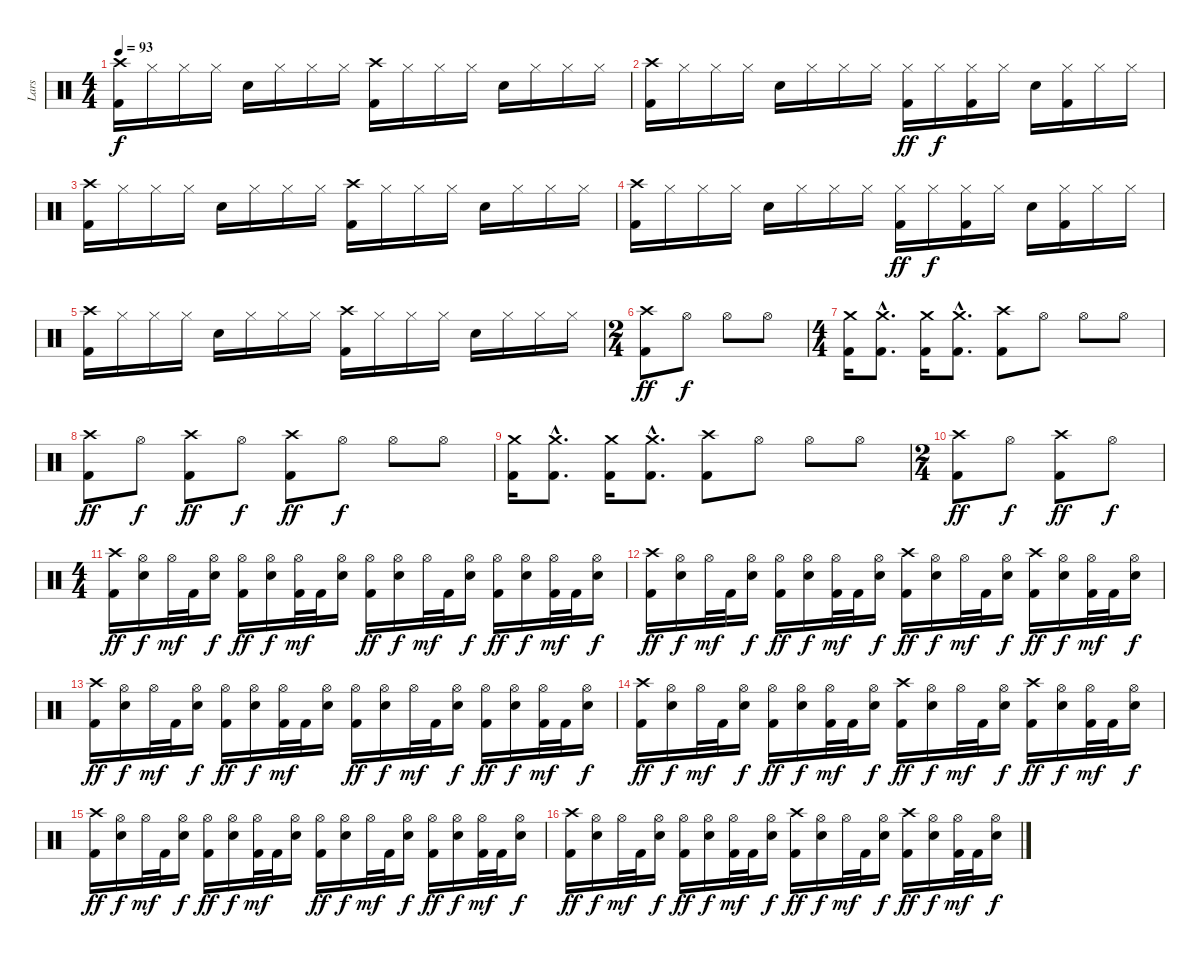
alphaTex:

\track ("Lars" "Lars") {instrument percussion}
\staff {score}
\articulation defaults
\ts (4 4)
\tempo 93
\clef neutral
\ks c
("Crash high (hit)" "Kick (hit) 2").16{dy f} "Hi-Hat (closed)".16 "Hi-Hat (closed)".16 "Hi-Hat (closed)".16 "Snare (hit) 2".16 "Hi-Hat (closed)".16 "Hi-Hat (closed)".16 "Hi-Hat (closed)".16 ("Crash high (hit)" "Kick (hit) 2").16 "Hi-Hat (closed)".16 "Hi-Hat (closed)".16 "Hi-Hat (closed)".16 "Snare (hit) 2".16 "Hi-Hat (closed)".16 "Hi-Hat (closed)".16 "Hi-Hat (closed)".16 |
("Crash high (hit)" "Kick (hit) 2").16 "Hi-Hat (closed)".16 "Hi-Hat (closed)".16 "Hi-Hat (closed)".16 "Snare (hit) 2".16 "Hi-Hat (closed)".16 "Hi-Hat (closed)".16 "Hi-Hat (closed)".16 ("Hi-Hat (closed)" "Kick (hit) 2").16{dy ff} "Hi-Hat (closed)".16{dy f} ("Hi-Hat (closed)" "Kick (hit) 2").16 "Hi-Hat (closed)".16 "Snare (hit) 2".16 ("Hi-Hat (closed)" "Kick (hit) 2").16 "Hi-Hat (closed)".16 "Hi-Hat (closed)".16 |
("Crash high (hit)" "Kick (hit) 2").16 "Hi-Hat (closed)".16 "Hi-Hat (closed)".16 "Hi-Hat (closed)".16 "Snare (hit) 2".16 "Hi-Hat (closed)".16 "Hi-Hat (closed)".16 "Hi-Hat (closed)".16 ("Crash high (hit)" "Kick (hit) 2").16 "Hi-Hat (closed)".16 "Hi-Hat (closed)".16 "Hi-Hat (closed)".16 "Snare (hit) 2".16 "Hi-Hat (closed)".16 "Hi-Hat (closed)".16 "Hi-Hat (closed)".16 |
("Crash high (hit)" "Kick (hit) 2").16 "Hi-Hat (closed)".16 "Hi-Hat (closed)".16 "Hi-Hat (closed)".16 "Snare (hit) 2".16 "Hi-Hat (closed)".16 "Hi-Hat (closed)".16 "Hi-Hat (closed)".16 ("Hi-Hat (closed)" "Kick (hit) 2").16{dy ff} "Hi-Hat (closed)".16{dy f} ("Hi-Hat (closed)" "Kick (hit) 2").16 "Hi-Hat (closed)".16 "Snare (hit) 2".16 ("Hi-Hat (closed)" "Kick (hit) 2").16 "Hi-Hat (closed)".16 "Hi-Hat (closed)".16 |
("Crash high (hit)" "Kick (hit) 2").16 "Hi-Hat (closed)".16 "Hi-Hat (closed)".16 "Hi-Hat (closed)".16 "Snare (hit) 2".16 "Hi-Hat (closed)".16 "Hi-Hat (closed)".16 "Hi-Hat (closed)".16 ("Crash high (hit)" "Kick (hit) 2").16 "Hi-Hat (closed)".16 "Hi-Hat (closed)".16 "Hi-Hat (closed)".16 "Snare (hit) 2".16 "Hi-Hat (closed)".16 "Hi-Hat (closed)".16 "Hi-Hat (closed)".16 |
\ts (2 4)
("Crash high (hit)" "Kick (hit) 2").8{dy ff} "Hi-Hat (open)".8{dy f} "Hi-Hat (open)".8 "Hi-Hat (open)".8 |
\ts (4 4)
("Crash medium (hit)" "Kick (hit) 2").16 ("Crash medium (hit)"{hac} "Kick (hit) 2"{hac}).8{d} ("Crash medium (hit)" "Kick (hit) 2").16 ("Crash medium (hit)"{hac} "Kick (hit) 2"{hac}).8{d} ("Crash high (hit)" "Kick (hit) 2").8 "Hi-Hat (open)".8 "Hi-Hat (open)".8 "Hi-Hat (open)".8 |
("Crash high (hit)" "Kick (hit) 2").8{dy ff} "Hi-Hat (open)".8{dy f} ("Crash high (hit)" "Kick (hit) 2").8{dy ff} "Hi-Hat (open)".8{dy f} ("Crash high (hit)" "Kick (hit) 2").8{dy ff} "Hi-Hat (open)".8{dy f} "Hi-Hat (open)".8 "Hi-Hat (open)".8 |
("Crash medium (hit)" "Kick (hit) 2").16 ("Crash medium (hit)"{hac} "Kick (hit) 2"{hac}).8{d} ("Crash medium (hit)" "Kick (hit) 2").16 ("Crash medium (hit)"{hac} "Kick (hit) 2"{hac}).8{d} ("Crash high (hit)" "Kick (hit) 2").8 "Hi-Hat (open)".8 "Hi-Hat (open)".8 "Hi-Hat (open)".8 |
\ts (2 4)
("Crash high (hit)" "Kick (hit) 2").8{dy ff} "Hi-Hat (open)".8{dy f} ("Crash high (hit)" "Kick (hit) 2").8{dy ff} "Hi-Hat (open)".8{dy f} |
\ts (4 4)
("Crash high (hit)" "Kick (hit) 2").16{dy ff} ("Hi-Hat (open)" "Snare (hit) 2").16{dy f} "Hi-Hat (open)".32{dy mf} "Kick (hit) 2".32 ("Hi-Hat (open)" "Snare (hit) 2").16{dy f} ("Hi-Hat (open)" "Kick (hit) 2").16{dy ff} ("Hi-Hat (open)" "Snare (hit) 2").16{dy f} ("Hi-Hat (open)" "Kick (hit) 2").32{dy mf} "Kick (hit) 2".32 ("Hi-Hat (open)" "Snare (hit) 2").16 ("Hi-Hat (open)" "Kick (hit) 2").16{dy ff} ("Hi-Hat (open)" "Snare (hit) 2").16{dy f} "Hi-Hat (open)".32{dy mf} "Kick (hit) 2".32 ("Hi-Hat (open)" "Snare (hit) 2").16{dy f} ("Hi-Hat (open)" "Kick (hit) 2").16{dy ff} ("Hi-Hat (open)" "Snare (hit) 2").16{dy f} ("Hi-Hat (open)" "Kick (hit) 2").32{dy mf} "Kick (hit) 2".32 ("Hi-Hat (open)" "Snare (hit) 2").16{dy f} |
("Crash high (hit)" "Kick (hit) 2").16{dy ff} ("Hi-Hat (open)" "Snare (hit) 2").16{dy f} "Hi-Hat (open)".32{dy mf} "Kick (hit) 2".32 ("Hi-Hat (open)" "Snare (hit) 2").16{dy f} ("Hi-Hat (open)" "Kick (hit) 2").16{dy ff} ("Hi-Hat (open)" "Snare (hit) 2").16{dy f} ("Hi-Hat (open)" "Kick (hit) 2").32{dy mf} "Kick (hit) 2".32 ("Hi-Hat (open)" "Snare (hit) 2").16{dy f} ("Crash high (hit)" "Kick (hit) 2").16{dy ff} ("Hi-Hat (open)" "Snare (hit) 2").16{dy f} "Hi-Hat (open)".32{dy mf} "Kick (hit) 2".32 ("Hi-Hat (open)" "Snare (hit) 2").16{dy f} ("Crash high (hit)" "Kick (hit) 2").16{dy ff} ("Hi-Hat (open)" "Snare (hit) 2").16{dy f} ("Hi-Hat (open)" "Kick (hit) 2").32{dy mf} "Kick (hit) 2".32 ("Hi-Hat (open)" "Snare (hit) 2").16{dy f} |
("Crash high (hit)" "Kick (hit) 2").16{dy ff} ("Hi-Hat (open)" "Snare (hit) 2").16{dy f} "Hi-Hat (open)".32{dy mf} "Kick (hit) 2".32 ("Hi-Hat (open)" "Snare (hit) 2").16{dy f} ("Hi-Hat (open)" "Kick (hit) 2").16{dy ff} ("Hi-Hat (open)" "Snare (hit) 2").16{dy f} ("Hi-Hat (open)" "Kick (hit) 2").32{dy mf} "Kick (hit) 2".32 ("Hi-Hat (open)" "Snare (hit) 2").16 ("Hi-Hat (open)" "Kick (hit) 2").16{dy ff} ("Hi-Hat (open)" "Snare (hit) 2").16{dy f} "Hi-Hat (open)".32{dy mf} "Kick (hit) 2".32 ("Hi-Hat (open)" "Snare (hit) 2").16{dy f} ("Hi-Hat (open)" "Kick (hit) 2").16{dy ff} ("Hi-Hat (open)" "Snare (hit) 2").16{dy f} ("Hi-Hat (open)" "Kick (hit) 2").32{dy mf} "Kick (hit) 2".32 ("Hi-Hat (open)" "Snare (hit) 2").16{dy f} |
("Crash high (hit)" "Kick (hit) 2").16{dy ff} ("Hi-Hat (open)" "Snare (hit) 2").16{dy f} "Hi-Hat (open)".32{dy mf} "Kick (hit) 2".32 ("Hi-Hat (open)" "Snare (hit) 2").16{dy f} ("Hi-Hat (open)" "Kick (hit) 2").16{dy ff} ("Hi-Hat (open)" "Snare (hit) 2").16{dy f} ("Hi-Hat (open)" "Kick (hit) 2").32{dy mf} "Kick (hit) 2".32 ("Hi-Hat (open)" "Snare (hit) 2").16{dy f} ("Crash high (hit)" "Kick (hit) 2").16{dy ff} ("Hi-Hat (open)" "Snare (hit) 2").16{dy f} "Hi-Hat (open)".32{dy mf} "Kick (hit) 2".32 ("Hi-Hat (open)" "Snare (hit) 2").16{dy f} ("Crash high (hit)" "Kick (hit) 2").16{dy ff} ("Hi-Hat (open)" "Snare (hit) 2").16{dy f} ("Hi-Hat (open)" "Kick (hit) 2").32{dy mf} "Kick (hit) 2".32 ("Hi-Hat (open)" "Snare (hit) 2").16{dy f} |
("Crash high (hit)" "Kick (hit) 2").16{dy ff} ("Hi-Hat (open)" "Snare (hit) 2").16{dy f} "Hi-Hat (open)".32{dy mf} "Kick (hit) 2".32 ("Hi-Hat (open)" "Snare (hit) 2").16{dy f} ("Hi-Hat (open)" "Kick (hit) 2").16{dy ff} ("Hi-Hat (open)" "Snare (hit) 2").16{dy f} ("Hi-Hat (open)" "Kick (hit) 2").32{dy mf} "Kick (hit) 2".32 ("Hi-Hat (open)" "Snare (hit) 2").16 ("Hi-Hat (open)" "Kick (hit) 2").16{dy ff} ("Hi-Hat (open)" "Snare (hit) 2").16{dy f} "Hi-Hat (open)".32{dy mf} "Kick (hit) 2".32 ("Hi-Hat (open)" "Snare (hit) 2").16{dy f} ("Hi-Hat (open)" "Kick (hit) 2").16{dy ff} ("Hi-Hat (open)" "Snare (hit) 2").16{dy f} ("Hi-Hat (open)" "Kick (hit) 2").32{dy mf} "Kick (hit) 2".32 ("Hi-Hat (open)" "Snare (hit) 2").16{dy f} |
("Crash high (hit)" "Kick (hit) 2").16{dy ff} ("Hi-Hat (open)" "Snare (hit) 2").16{dy f} "Hi-Hat (open)".32{dy mf} "Kick (hit) 2".32 ("Hi-Hat (open)" "Snare (hit) 2").16{dy f} ("Hi-Hat (open)" "Kick (hit) 2").16{dy ff} ("Hi-Hat (open)" "Snare (hit) 2").16{dy f} ("Hi-Hat (open)" "Kick (hit) 2").32{dy mf} "Kick (hit) 2".32 ("Hi-Hat (open)" "Snare (hit) 2").16{dy f} ("Crash high (hit)" "Kick (hit) 2").16{dy ff} ("Hi-Hat (open)" "Snare (hit) 2").16{dy f} "Hi-Hat (open)".32{dy mf} "Kick (hit) 2".32 ("Hi-Hat (open)" "Snare (hit) 2").16{dy f} ("Crash high (hit)" "Kick (hit) 2").16{dy ff} ("Hi-Hat (open)" "Snare (hit) 2").16{dy f} ("Hi-Hat (open)" "Kick (hit) 2").32{dy mf} "Kick (hit) 2".32 ("Hi-Hat (open)" "Snare (hit) 2").16{dy f}
